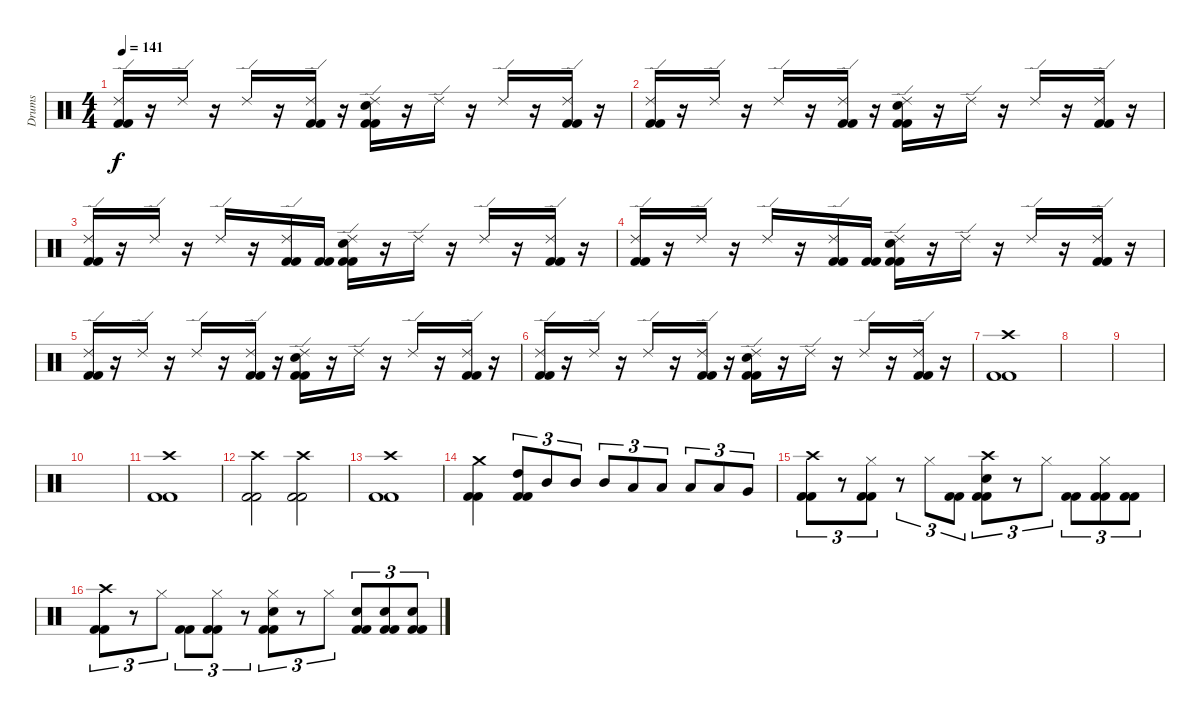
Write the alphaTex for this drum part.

\track ("Drums" "Drums") {instrument percussion}
\staff {score}
\articulation defaults
\ts (4 4)
\tempo 141
\clef neutral
\ks c
("Ride (edge) 2" "Kick (hit) 2" "Kick (hit) 2").16{dy f} r.16 "Ride (edge) 2".16 r.16 "Ride (edge) 2".16 r.16 ("Ride (edge) 2" "Kick (hit) 2" "Kick (hit) 2").16 r.16 ("Ride (edge) 2" "Snare (hit) 2" "Kick (hit) 2" "Kick (hit) 2").16 r.16 "Ride (edge) 2".16 r.16 "Ride (edge) 2".16 r.16 ("Ride (edge) 2" "Kick (hit) 2" "Kick (hit) 2").16 r.16 |
("Ride (edge) 2" "Kick (hit) 2" "Kick (hit) 2").16 r.16 "Ride (edge) 2".16 r.16 "Ride (edge) 2".16 r.16 ("Ride (edge) 2" "Kick (hit) 2" "Kick (hit) 2").16 r.16 ("Ride (edge) 2" "Snare (hit) 2" "Kick (hit) 2" "Kick (hit) 2").16 r.16 "Ride (edge) 2".16 r.16 "Ride (edge) 2".16 r.16 ("Ride (edge) 2" "Kick (hit) 2" "Kick (hit) 2").16 r.16 |
("Ride (edge) 2" "Kick (hit) 2" "Kick (hit) 2").16 r.16 "Ride (edge) 2".16 r.16 "Ride (edge) 2".16 r.16 ("Ride (edge) 2" "Kick (hit) 2" "Kick (hit) 2").16 ("Kick (hit) 2" "Kick (hit) 2").16 ("Ride (edge) 2" "Snare (hit) 2" "Kick (hit) 2" "Kick (hit) 2").16 r.16 "Ride (edge) 2".16 r.16 "Ride (edge) 2".16 r.16 ("Ride (edge) 2" "Kick (hit) 2" "Kick (hit) 2").16 r.16 |
("Ride (edge) 2" "Kick (hit) 2" "Kick (hit) 2").16 r.16 "Ride (edge) 2".16 r.16 "Ride (edge) 2".16 r.16 ("Ride (edge) 2" "Kick (hit) 2" "Kick (hit) 2").16 ("Kick (hit) 2" "Kick (hit) 2").16 ("Ride (edge) 2" "Snare (hit) 2" "Kick (hit) 2" "Kick (hit) 2").16 r.16 "Ride (edge) 2".16 r.16 "Ride (edge) 2".16 r.16 ("Ride (edge) 2" "Kick (hit) 2" "Kick (hit) 2").16 r.16 |
("Ride (edge) 2" "Kick (hit) 2" "Kick (hit) 2").16 r.16 "Ride (edge) 2".16 r.16 "Ride (edge) 2".16 r.16 ("Ride (edge) 2" "Kick (hit) 2" "Kick (hit) 2").16 r.16 ("Ride (edge) 2" "Snare (hit) 2" "Kick (hit) 2" "Kick (hit) 2").16 r.16 "Ride (edge) 2".16 r.16 "Ride (edge) 2".16 r.16 ("Ride (edge) 2" "Kick (hit) 2" "Kick (hit) 2").16 r.16 |
("Ride (edge) 2" "Kick (hit) 2" "Kick (hit) 2").16 r.16 "Ride (edge) 2".16 r.16 "Ride (edge) 2".16 r.16 ("Ride (edge) 2" "Kick (hit) 2" "Kick (hit) 2").16 r.16 ("Ride (edge) 2" "Snare (hit) 2" "Kick (hit) 2" "Kick (hit) 2").16 r.16 "Ride (edge) 2".16 r.16 "Ride (edge) 2".16 r.16 ("Ride (edge) 2" "Kick (hit) 2" "Kick (hit) 2").16 r.16 |
("Crash high (hit)" "Kick (hit) 2" "Kick (hit) 2").1 |
|
|
|
("Crash high (hit)" "Kick (hit) 2" "Kick (hit) 2").1 |
("Crash high (hit)" "Kick (hit) 2" "Kick (hit) 2").2 ("Crash high (hit)" "Kick (hit) 2" "Kick (hit) 2").2 |
("Crash high (hit)" "Kick (hit) 2" "Kick (hit) 2").1 |
("Crash medium (hit)" "Kick (hit) 2" "Kick (hit) 2").4 ("High Tom (hit)" "Kick (hit) 2" "Kick (hit) 2").8{tu (3 2)} "Mid Tom (hit)".8{tu (3 2)} "Mid Tom (hit)".8{tu (3 2)} "Mid Tom (hit)".8{tu (3 2)} "Low Tom (hit)".8{tu (3 2)} "Low Tom (hit)".8{tu (3 2)} "Low Tom (hit)".8{tu (3 2)} "Low Tom (hit)".8{tu (3 2)} "Very Low Tom (hit)".8{tu (3 2)} |
("Crash high (hit)" "Kick (hit) 2" "Kick (hit) 2").8{tu (3 2)} r.8{tu (3 2)} ("Hi-Hat (closed)" "Kick (hit) 2" "Kick (hit) 2").8{tu (3 2)} r.8{tu (3 2)} "Hi-Hat (closed)".8{tu (3 2)} ("Kick (hit) 2" "Kick (hit) 2").8{tu (3 2)} ("Crash high (hit)" "Snare (hit) 2" "Kick (hit) 2" "Kick (hit) 2").8{tu (3 2)} r.8{tu (3 2)} "Hi-Hat (closed)".8{tu (3 2)} ("Kick (hit) 2" "Kick (hit) 2").8{tu (3 2)} ("Hi-Hat (closed)" "Kick (hit) 2" "Kick (hit) 2").8{tu (3 2)} ("Kick (hit) 2" "Kick (hit) 2").8{tu (3 2)} |
("Crash high (hit)" "Kick (hit) 2" "Kick (hit) 2").8{tu (3 2)} r.8{tu (3 2)} "Hi-Hat (closed)".8{tu (3 2)} ("Kick (hit) 2" "Kick (hit) 2").8{tu (3 2)} ("Hi-Hat (closed)" "Kick (hit) 2" "Kick (hit) 2").8{tu (3 2)} r.8{tu (3 2)} ("Hi-Hat (closed)" "Snare (hit) 2" "Kick (hit) 2" "Kick (hit) 2").8{tu (3 2)} r.8{tu (3 2)} "Hi-Hat (closed)".8{tu (3 2)} ("Snare (hit) 2" "Kick (hit) 2" "Kick (hit) 2").8{tu (3 2)} ("Snare (hit) 2" "Kick (hit) 2" "Kick (hit) 2").8{tu (3 2)} ("Snare (hit) 2" "Kick (hit) 2" "Kick (hit) 2").8{tu (3 2)}
